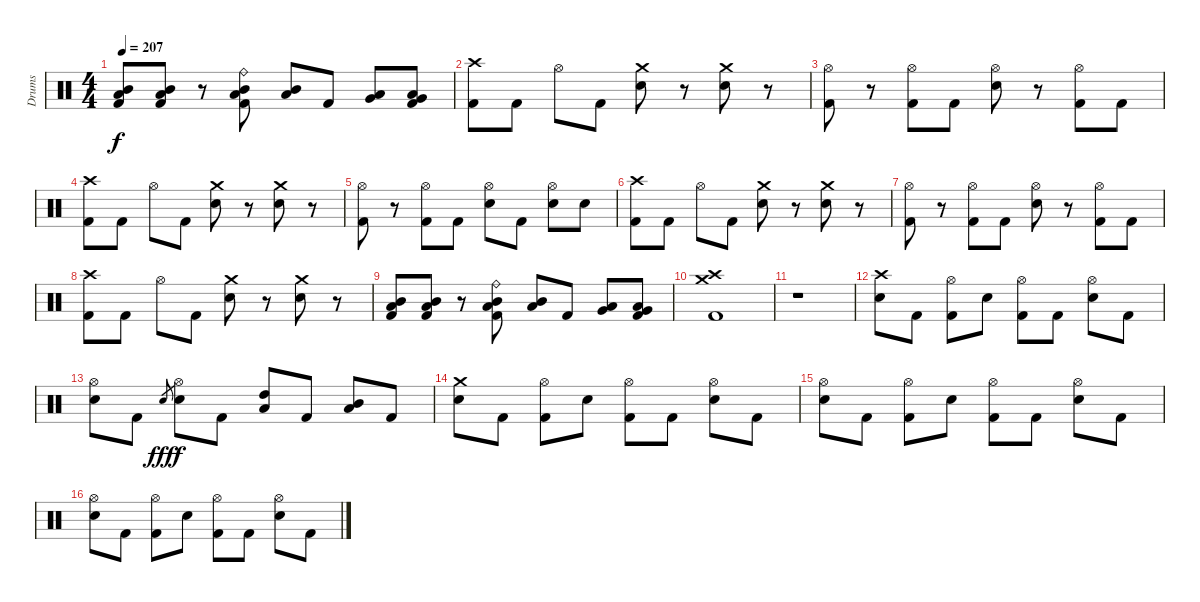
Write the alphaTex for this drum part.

\track ("Drums" "Drums") {instrument percussion}
\staff {score}
\articulation defaults
\ts (4 4)
\tempo 207
\clef neutral
\ks c
("Mid Tom (hit)" "Low Tom (hit)" "Kick (hit) 2").8{dy f} ("Mid Tom (hit)" "Low Tom (hit)" "Kick (hit) 2").8 r.8 ("Ride (bell)" "Mid Tom (hit)" "Low Tom (hit)" "Kick (hit) 2").8 ("Mid Tom (hit)" "Low Tom (hit)").8 "Kick (hit) 2".8 ("Low Tom (hit)" "Very Low Tom (hit)").8 ("Low Tom (hit)" "Very Low Tom (hit)" "Kick (hit) 2").8 |
("Crash high (hit)" "Kick (hit) 2").8 "Kick (hit) 2".8 "Hi-Hat (open)".8 "Kick (hit) 2".8 ("Crash medium (hit)" "Electric Snare (hit)").8 r.8 ("Crash medium (hit)" "Electric Snare (hit)").8 r.8 |
("Hi-Hat (open)" "Kick (hit) 2").8 r.8 ("Hi-Hat (open)" "Kick (hit) 2").8 "Kick (hit) 2".8 ("Hi-Hat (open)" "Electric Snare (hit)").8 r.8 ("Hi-Hat (open)" "Kick (hit) 2").8 "Kick (hit) 2".8 |
("Crash high (hit)" "Kick (hit) 2").8 "Kick (hit) 2".8 "Hi-Hat (open)".8 "Kick (hit) 2".8 ("Crash medium (hit)" "Electric Snare (hit)").8 r.8 ("Crash medium (hit)" "Electric Snare (hit)").8 r.8 |
("Hi-Hat (open)" "Kick (hit) 2").8 r.8 ("Hi-Hat (open)" "Kick (hit) 2").8 "Kick (hit) 2".8 ("Hi-Hat (open)" "Electric Snare (hit)").8 "Kick (hit) 2".8 ("Hi-Hat (open)" "Electric Snare (hit)").8 "Electric Snare (hit)".8 |
("Crash high (hit)" "Kick (hit) 2").8 "Kick (hit) 2".8 "Hi-Hat (open)".8 "Kick (hit) 2".8 ("Crash medium (hit)" "Electric Snare (hit)").8 r.8 ("Crash medium (hit)" "Electric Snare (hit)").8 r.8 |
("Hi-Hat (open)" "Kick (hit) 2").8 r.8 ("Hi-Hat (open)" "Kick (hit) 2").8 "Kick (hit) 2".8 ("Hi-Hat (open)" "Electric Snare (hit)").8 r.8 ("Hi-Hat (open)" "Kick (hit) 2").8 "Kick (hit) 2".8 |
("Crash high (hit)" "Kick (hit) 2").8 "Kick (hit) 2".8 "Hi-Hat (open)".8 "Kick (hit) 2".8 ("Crash medium (hit)" "Electric Snare (hit)").8 r.8 ("Crash medium (hit)" "Electric Snare (hit)").8 r.8 |
("Mid Tom (hit)" "Low Tom (hit)" "Kick (hit) 2").8 ("Mid Tom (hit)" "Low Tom (hit)" "Kick (hit) 2").8 r.8 ("Ride (bell)" "Mid Tom (hit)" "Low Tom (hit)" "Kick (hit) 2").8 ("Mid Tom (hit)" "Low Tom (hit)").8 "Kick (hit) 2".8 ("Low Tom (hit)" "Very Low Tom (hit)").8 ("Low Tom (hit)" "Very Low Tom (hit)" "Kick (hit) 2").8 |
("Crash medium (hit)" "Crash high (hit)" "Kick (hit) 2").1 |
r.1 |
("Crash high (hit)" "Electric Snare (hit)").8 "Kick (hit) 2".8 ("Hi-Hat (open)" "Kick (hit) 2").8 "Electric Snare (hit)".8 ("Hi-Hat (open)" "Kick (hit) 2").8 "Kick (hit) 2".8 ("Hi-Hat (open)" "Electric Snare (hit)").8 "Kick (hit) 2".8 |
("Hi-Hat (open)" "Electric Snare (hit)").8 "Kick (hit) 2".8 "Electric Snare (hit)".8{gr dy fff} ("Hi-Hat (open)" "Electric Snare (hit)").8{dy f} "Kick (hit) 2".8 ("High Tom (hit)" "Low Tom (hit)").8 "Kick (hit) 2".8 ("Mid Tom (hit)" "Low Tom (hit)").8 "Kick (hit) 2".8 |
("Crash medium (hit)" "Electric Snare (hit)").8 "Kick (hit) 2".8 ("Hi-Hat (open)" "Kick (hit) 2").8 "Electric Snare (hit)".8 ("Hi-Hat (open)" "Kick (hit) 2").8 "Kick (hit) 2".8 ("Hi-Hat (open)" "Electric Snare (hit)").8 "Kick (hit) 2".8 |
("Hi-Hat (open)" "Electric Snare (hit)").8 "Kick (hit) 2".8 ("Hi-Hat (open)" "Kick (hit) 2").8 "Electric Snare (hit)".8 ("Hi-Hat (open)" "Kick (hit) 2").8 "Kick (hit) 2".8 ("Hi-Hat (open)" "Electric Snare (hit)").8 "Kick (hit) 2".8 |
("Hi-Hat (open)" "Electric Snare (hit)").8 "Kick (hit) 2".8 ("Hi-Hat (open)" "Kick (hit) 2").8 "Electric Snare (hit)".8 ("Hi-Hat (open)" "Kick (hit) 2").8 "Kick (hit) 2".8 ("Hi-Hat (open)" "Electric Snare (hit)").8 "Kick (hit) 2".8
